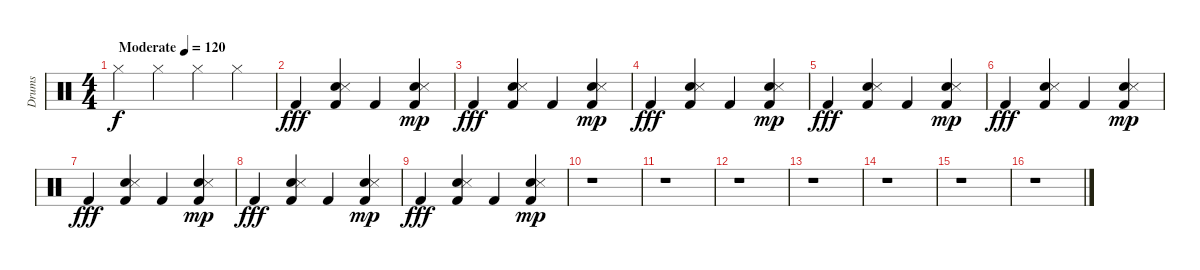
\track ("Drums" "Drums") {instrument percussion}
\staff {score}
\articulation defaults
\ts (4 4)
\tempo (120 "Moderate")
\clef neutral
\ks c "Hi-Hat (closed)".4{dy f} "Hi-Hat (closed)".4 "Hi-Hat (closed)".4 "Hi-Hat (closed)".4
|
"Kick (hit) 2".4{dy fff} ("Hand Clap (hit)" "Kick (hit) 2" "Snare (side stick) 3").4 "Kick (hit) 2".4 ("Kick (hit) 2" "Hand Clap (hit)" "Snare (side stick) 3").4{dy mp} |
"Kick (hit) 2".4{dy fff} ("Hand Clap (hit)" "Kick (hit) 2" "Snare (side stick) 3").4 "Kick (hit) 2".4 ("Kick (hit) 2" "Hand Clap (hit)" "Snare (side stick) 3").4{dy mp} |
"Kick (hit) 2".4{dy fff} ("Hand Clap (hit)" "Kick (hit) 2" "Snare (side stick) 3").4 "Kick (hit) 2".4 ("Kick (hit) 2" "Hand Clap (hit)" "Snare (side stick) 3").4{dy mp} |
"Kick (hit) 2".4{dy fff} ("Hand Clap (hit)" "Kick (hit) 2" "Snare (side stick) 3").4 "Kick (hit) 2".4 ("Kick (hit) 2" "Hand Clap (hit)" "Snare (side stick) 3").4{dy mp} |
"Kick (hit) 2".4{dy fff} ("Hand Clap (hit)" "Kick (hit) 2" "Snare (side stick) 3").4 "Kick (hit) 2".4 ("Kick (hit) 2" "Hand Clap (hit)" "Snare (side stick) 3").4{dy mp} |
"Kick (hit) 2".4{dy fff} ("Hand Clap (hit)" "Kick (hit) 2" "Snare (side stick) 3").4 "Kick (hit) 2".4 ("Kick (hit) 2" "Hand Clap (hit)" "Snare (side stick) 3").4{dy mp} |
"Kick (hit) 2".4{dy fff} ("Hand Clap (hit)" "Kick (hit) 2" "Snare (side stick) 3").4 "Kick (hit) 2".4 ("Kick (hit) 2" "Hand Clap (hit)" "Snare (side stick) 3").4{dy mp} |
"Kick (hit) 2".4{dy fff} ("Hand Clap (hit)" "Kick (hit) 2" "Snare (side stick) 3").4 "Kick (hit) 2".4 ("Kick (hit) 2" "Hand Clap (hit)" "Snare (side stick) 3").4{dy mp} |
r.1 |
r.1 |
r.1 |
r.1 |
r.1 |
r.1 |
r.1
